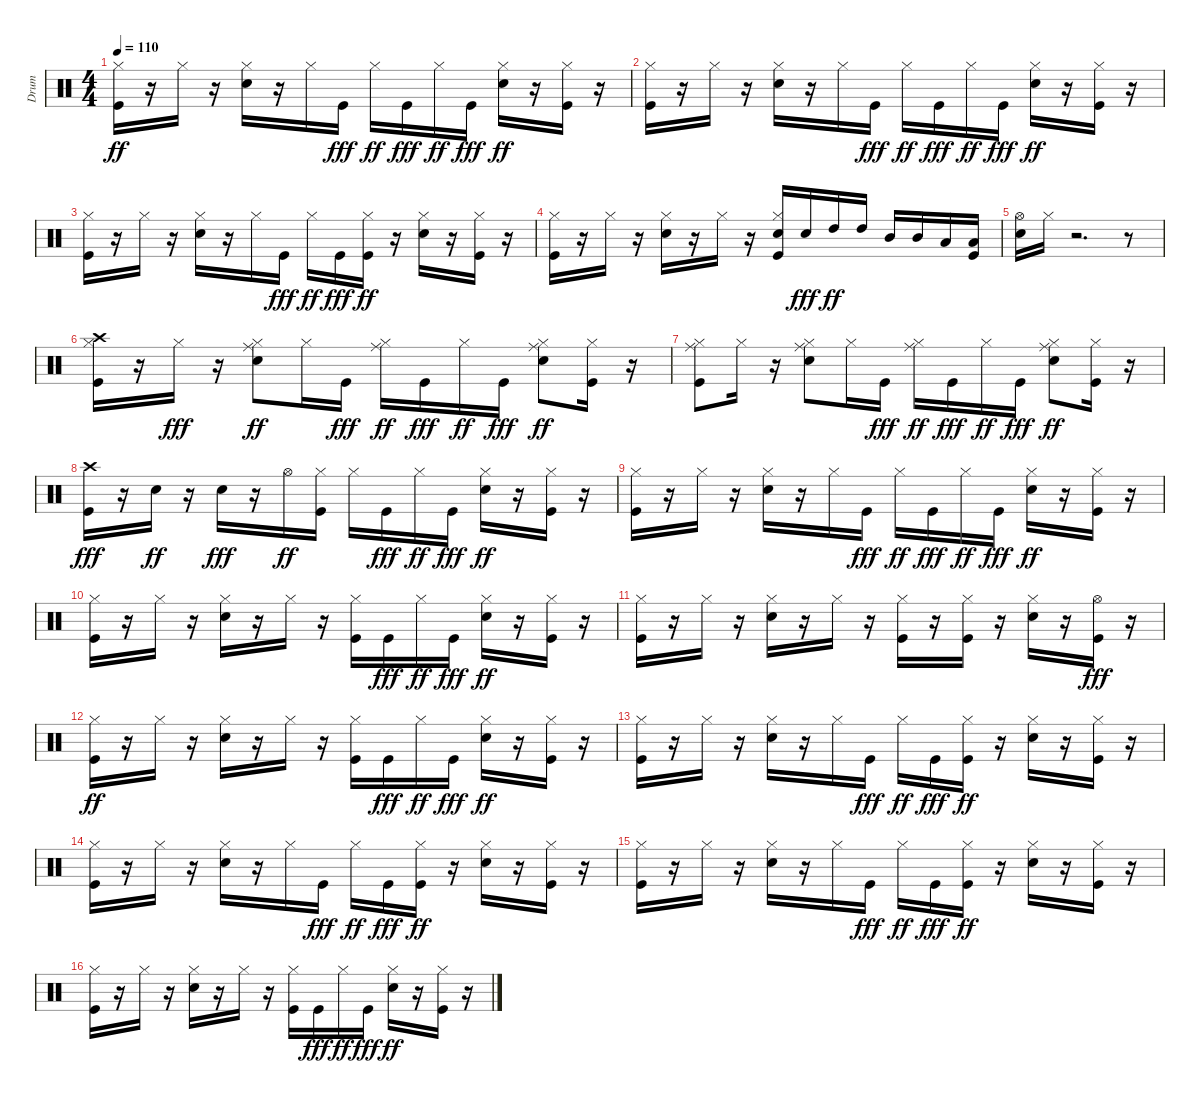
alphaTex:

\track ("Drum" "Drum") {instrument percussion}
\staff {score}
\articulation defaults
\ts (4 4)
\tempo 110
\clef neutral
\ks c
("Kick (hit)" "Hi-Hat (closed)").16{dy ff} r.16 "Hi-Hat (closed)".16 r.16 ("Electric Snare (hit)" "Hi-Hat (closed)").16 r.16 "Hi-Hat (closed)".16 "Kick (hit)".16{dy fff} "Hi-Hat (closed)".16{dy ff} "Kick (hit)".16{dy fff} "Hi-Hat (closed)".16{dy ff} "Kick (hit)".16{dy fff} ("Electric Snare (hit)" "Hi-Hat (closed)").16{dy ff} r.16 ("Kick (hit)" "Hi-Hat (closed)").16 r.16 |
("Kick (hit)" "Hi-Hat (closed)").16 r.16 "Hi-Hat (closed)".16 r.16 ("Electric Snare (hit)" "Hi-Hat (closed)").16 r.16 "Hi-Hat (closed)".16 "Kick (hit)".16{dy fff} "Hi-Hat (closed)".16{dy ff} "Kick (hit)".16{dy fff} "Hi-Hat (closed)".16{dy ff} "Kick (hit)".16{dy fff} ("Electric Snare (hit)" "Hi-Hat (closed)").16{dy ff} r.16 ("Kick (hit)" "Hi-Hat (closed)").16 r.16 |
("Kick (hit)" "Hi-Hat (closed)").16 r.16 "Hi-Hat (closed)".16 r.16 ("Electric Snare (hit)" "Hi-Hat (closed)").16 r.16 "Hi-Hat (closed)".16 "Kick (hit)".16{dy fff} "Hi-Hat (closed)".16{dy ff} "Kick (hit)".16{dy fff} ("Kick (hit)" "Hi-Hat (closed)").16{dy ff} r.16 ("Electric Snare (hit)" "Hi-Hat (closed)").16 r.16 ("Kick (hit)" "Hi-Hat (closed)").16 r.16 |
("Kick (hit)" "Hi-Hat (closed)").16 r.16 "Hi-Hat (closed)".16 r.16 ("Electric Snare (hit)" "Hi-Hat (closed)").16 r.16 "Hi-Hat (closed)".16 r.16 ("Kick (hit)" "Electric Snare (hit)" "Hi-Hat (closed)").16 "Electric Snare (hit)".16{dy fff} "High Tom (hit)".16{dy ff} "High Tom (hit)".16 "Mid Tom (hit)".16 "Mid Tom (hit)".16 "Low Tom (hit)".16 ("Low Tom (hit)" "Kick (hit)").16 |
("Electric Snare (hit)" "Hi-Hat (open)").16 "Hi-Hat (closed)".16 r.2{d} r.8 |
("Crash high (hit)" "Kick (hit)" "Hi-Hat (closed)").16 r.16 "Hi-Hat (closed)".16{dy fff} r.16 ("Electric Snare (hit)" "Hi-Hat (closed)" "Ride (middle)").8{dy ff} "Hi-Hat (closed)".16 "Kick (hit)".16{dy fff} ("Hi-Hat (closed)" "Ride (middle)").16{dy ff} "Kick (hit)".16{dy fff} "Hi-Hat (closed)".16{dy ff} "Kick (hit)".16{dy fff} ("Electric Snare (hit)" "Hi-Hat (closed)" "Ride (middle)").8{dy ff} ("Kick (hit)" "Hi-Hat (closed)").16 r.16 |
("Kick (hit)" "Hi-Hat (closed)" "Ride (middle)").8 "Hi-Hat (closed)".16 r.16 ("Electric Snare (hit)" "Hi-Hat (closed)" "Ride (middle)").8 "Hi-Hat (closed)".16 "Kick (hit)".16{dy fff} ("Hi-Hat (closed)" "Ride (middle)").16{dy ff} "Kick (hit)".16{dy fff} "Hi-Hat (closed)".16{dy ff} "Kick (hit)".16{dy fff} ("Electric Snare (hit)" "Hi-Hat (closed)" "Ride (middle)").8{dy ff} ("Kick (hit)" "Hi-Hat (closed)").16 r.16 |
("Crash high (hit)" "Kick (hit)").16{dy fff} r.16 "Electric Snare (hit)".16{dy ff} r.16 "Electric Snare (hit)".16{dy fff} r.16 "Hi-Hat (open)".16{dy ff} ("Kick (hit)" "Hi-Hat (closed)").16 "Hi-Hat (closed)".16 "Kick (hit)".16{dy fff} "Hi-Hat (closed)".16{dy ff} "Kick (hit)".16{dy fff} ("Electric Snare (hit)" "Hi-Hat (closed)").16{dy ff} r.16 ("Kick (hit)" "Hi-Hat (closed)").16 r.16 |
("Kick (hit)" "Hi-Hat (closed)").16 r.16 "Hi-Hat (closed)".16 r.16 ("Electric Snare (hit)" "Hi-Hat (closed)").16 r.16 "Hi-Hat (closed)".16 "Kick (hit)".16{dy fff} "Hi-Hat (closed)".16{dy ff} "Kick (hit)".16{dy fff} "Hi-Hat (closed)".16{dy ff} "Kick (hit)".16{dy fff} ("Electric Snare (hit)" "Hi-Hat (closed)").16{dy ff} r.16 ("Kick (hit)" "Hi-Hat (closed)").16 r.16 |
("Kick (hit)" "Hi-Hat (closed)").16 r.16 "Hi-Hat (closed)".16 r.16 ("Electric Snare (hit)" "Hi-Hat (closed)").16 r.16 "Hi-Hat (closed)".16 r.16 ("Kick (hit)" "Hi-Hat (closed)").16 "Kick (hit)".16{dy fff} "Hi-Hat (closed)".16{dy ff} "Kick (hit)".16{dy fff} ("Electric Snare (hit)" "Hi-Hat (closed)").16{dy ff} r.16 ("Kick (hit)" "Hi-Hat (closed)").16 r.16 |
("Kick (hit)" "Hi-Hat (closed)").16 r.16 "Hi-Hat (closed)".16 r.16 ("Electric Snare (hit)" "Hi-Hat (closed)").16 r.16 "Hi-Hat (closed)".16 r.16 ("Kick (hit)" "Hi-Hat (closed)").16 r.16 ("Kick (hit)" "Hi-Hat (closed)").16 r.16 ("Electric Snare (hit)" "Hi-Hat (closed)").16 r.16 ("Hi-Hat (open)" "Kick (hit)").16{dy fff} r.16 |
("Kick (hit)" "Hi-Hat (closed)").16{dy ff} r.16 "Hi-Hat (closed)".16 r.16 ("Electric Snare (hit)" "Hi-Hat (closed)").16 r.16 "Hi-Hat (closed)".16 r.16 ("Kick (hit)" "Hi-Hat (closed)").16 "Kick (hit)".16{dy fff} "Hi-Hat (closed)".16{dy ff} "Kick (hit)".16{dy fff} ("Electric Snare (hit)" "Hi-Hat (closed)").16{dy ff} r.16 ("Kick (hit)" "Hi-Hat (closed)").16 r.16 |
("Kick (hit)" "Hi-Hat (closed)").16 r.16 "Hi-Hat (closed)".16 r.16 ("Electric Snare (hit)" "Hi-Hat (closed)").16 r.16 "Hi-Hat (closed)".16 "Kick (hit)".16{dy fff} "Hi-Hat (closed)".16{dy ff} "Kick (hit)".16{dy fff} ("Kick (hit)" "Hi-Hat (closed)").16{dy ff} r.16 ("Electric Snare (hit)" "Hi-Hat (closed)").16 r.16 ("Kick (hit)" "Hi-Hat (closed)").16 r.16 |
("Kick (hit)" "Hi-Hat (closed)").16 r.16 "Hi-Hat (closed)".16 r.16 ("Electric Snare (hit)" "Hi-Hat (closed)").16 r.16 "Hi-Hat (closed)".16 "Kick (hit)".16{dy fff} "Hi-Hat (closed)".16{dy ff} "Kick (hit)".16{dy fff} ("Kick (hit)" "Hi-Hat (closed)").16{dy ff} r.16 ("Electric Snare (hit)" "Hi-Hat (closed)").16 r.16 ("Kick (hit)" "Hi-Hat (closed)").16 r.16 |
("Kick (hit)" "Hi-Hat (closed)").16 r.16 "Hi-Hat (closed)".16 r.16 ("Electric Snare (hit)" "Hi-Hat (closed)").16 r.16 "Hi-Hat (closed)".16 "Kick (hit)".16{dy fff} "Hi-Hat (closed)".16{dy ff} "Kick (hit)".16{dy fff} ("Kick (hit)" "Hi-Hat (closed)").16{dy ff} r.16 ("Electric Snare (hit)" "Hi-Hat (closed)").16 r.16 ("Kick (hit)" "Hi-Hat (closed)").16 r.16 |
("Kick (hit)" "Hi-Hat (closed)").16 r.16 "Hi-Hat (closed)".16 r.16 ("Electric Snare (hit)" "Hi-Hat (closed)").16 r.16 "Hi-Hat (closed)".16 r.16 ("Kick (hit)" "Hi-Hat (closed)").16 "Kick (hit)".16{dy fff} "Hi-Hat (closed)".16{dy ff} "Kick (hit)".16{dy fff} ("Electric Snare (hit)" "Hi-Hat (closed)").16{dy ff} r.16 ("Kick (hit)" "Hi-Hat (closed)").16 r.16
